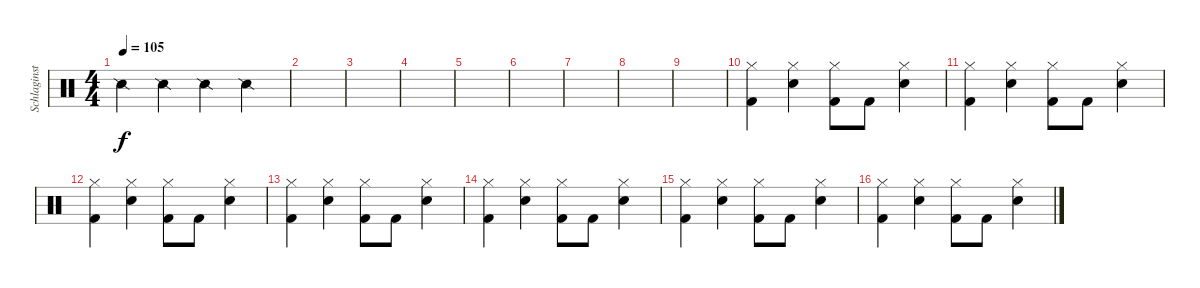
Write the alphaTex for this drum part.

\track ("Schlaginstrumente - Auswahl" "Schlaginst") {instrument percussion}
\staff {score}
\articulation defaults
\ts (4 4)
\tempo 105
\clef neutral
\ks c "Snare (side stick) 2".4{dy f} "Snare (side stick) 2".4 "Snare (side stick) 2".4 "Snare (side stick) 2".4
|
|
|
|
|
|
|
|
|
("Hi-Hat (closed)" "Kick (hit) 2").4 ("Hi-Hat (closed)" "Snare (hit) 2").4 ("Hi-Hat (closed)" "Kick (hit) 2").8 "Kick (hit) 2".8 ("Hi-Hat (closed)" "Snare (hit) 2").4 |
("Hi-Hat (closed)" "Kick (hit) 2").4 ("Hi-Hat (closed)" "Snare (hit) 2").4 ("Hi-Hat (closed)" "Kick (hit) 2").8 "Kick (hit) 2".8 ("Hi-Hat (closed)" "Snare (hit) 2").4 |
("Hi-Hat (closed)" "Kick (hit) 2").4 ("Hi-Hat (closed)" "Snare (hit) 2").4 ("Hi-Hat (closed)" "Kick (hit) 2").8 "Kick (hit) 2".8 ("Hi-Hat (closed)" "Snare (hit) 2").4 |
("Hi-Hat (closed)" "Kick (hit) 2").4 ("Hi-Hat (closed)" "Snare (hit) 2").4 ("Hi-Hat (closed)" "Kick (hit) 2").8 "Kick (hit) 2".8 ("Hi-Hat (closed)" "Snare (hit) 2").4 |
("Hi-Hat (closed)" "Kick (hit) 2").4 ("Hi-Hat (closed)" "Snare (hit) 2").4 ("Hi-Hat (closed)" "Kick (hit) 2").8 "Kick (hit) 2".8 ("Hi-Hat (closed)" "Snare (hit) 2").4 |
("Hi-Hat (closed)" "Kick (hit) 2").4 ("Hi-Hat (closed)" "Snare (hit) 2").4 ("Hi-Hat (closed)" "Kick (hit) 2").8 "Kick (hit) 2".8 ("Hi-Hat (closed)" "Snare (hit) 2").4 |
("Hi-Hat (closed)" "Kick (hit) 2").4 ("Hi-Hat (closed)" "Snare (hit) 2").4 ("Hi-Hat (closed)" "Kick (hit) 2").8 "Kick (hit) 2".8 ("Hi-Hat (closed)" "Snare (hit) 2").4
